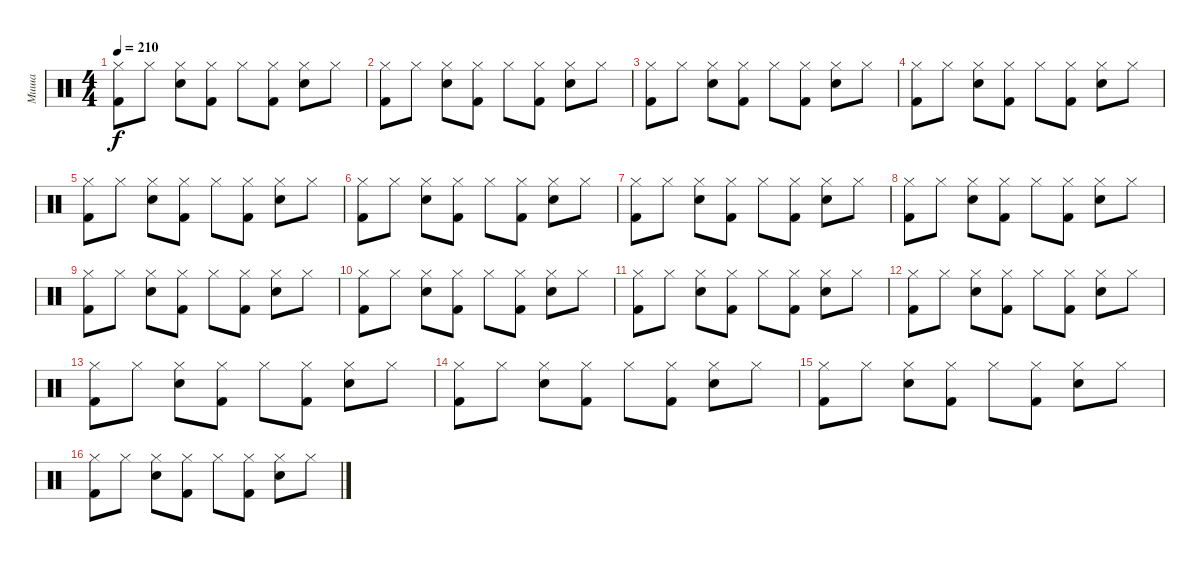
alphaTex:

\track ("Миша" "Миша") {instrument percussion}
\staff {score}
\articulation defaults
\ts (4 4)
\tempo 210
\clef neutral
\ks c
("Hi-Hat (closed)" "Kick (hit) 2").8{dy f} "Hi-Hat (closed)".8 ("Hi-Hat (closed)" "Snare (hit) 2").8 ("Hi-Hat (closed)" "Kick (hit) 2").8 "Hi-Hat (closed)".8 ("Hi-Hat (closed)" "Kick (hit) 2").8 ("Hi-Hat (closed)" "Snare (hit) 2").8 "Hi-Hat (closed)".8 |
("Hi-Hat (closed)" "Kick (hit) 2").8 "Hi-Hat (closed)".8 ("Hi-Hat (closed)" "Snare (hit) 2").8 ("Hi-Hat (closed)" "Kick (hit) 2").8 "Hi-Hat (closed)".8 ("Hi-Hat (closed)" "Kick (hit) 2").8 ("Hi-Hat (closed)" "Snare (hit) 2").8 "Hi-Hat (closed)".8 |
("Hi-Hat (closed)" "Kick (hit) 2").8 "Hi-Hat (closed)".8 ("Hi-Hat (closed)" "Snare (hit) 2").8 ("Hi-Hat (closed)" "Kick (hit) 2").8 "Hi-Hat (closed)".8 ("Hi-Hat (closed)" "Kick (hit) 2").8 ("Hi-Hat (closed)" "Snare (hit) 2").8 "Hi-Hat (closed)".8 |
("Hi-Hat (closed)" "Kick (hit) 2").8 "Hi-Hat (closed)".8 ("Hi-Hat (closed)" "Snare (hit) 2").8 ("Hi-Hat (closed)" "Kick (hit) 2").8 "Hi-Hat (closed)".8 ("Hi-Hat (closed)" "Kick (hit) 2").8 ("Hi-Hat (closed)" "Snare (hit) 2").8 "Hi-Hat (closed)".8 |
("Hi-Hat (closed)" "Kick (hit) 2").8 "Hi-Hat (closed)".8 ("Hi-Hat (closed)" "Snare (hit) 2").8 ("Hi-Hat (closed)" "Kick (hit) 2").8 "Hi-Hat (closed)".8 ("Hi-Hat (closed)" "Kick (hit) 2").8 ("Hi-Hat (closed)" "Snare (hit) 2").8 "Hi-Hat (closed)".8 |
("Hi-Hat (closed)" "Kick (hit) 2").8 "Hi-Hat (closed)".8 ("Hi-Hat (closed)" "Snare (hit) 2").8 ("Hi-Hat (closed)" "Kick (hit) 2").8 "Hi-Hat (closed)".8 ("Hi-Hat (closed)" "Kick (hit) 2").8 ("Hi-Hat (closed)" "Snare (hit) 2").8 "Hi-Hat (closed)".8 |
("Hi-Hat (closed)" "Kick (hit) 2").8 "Hi-Hat (closed)".8 ("Hi-Hat (closed)" "Snare (hit) 2").8 ("Hi-Hat (closed)" "Kick (hit) 2").8 "Hi-Hat (closed)".8 ("Hi-Hat (closed)" "Kick (hit) 2").8 ("Hi-Hat (closed)" "Snare (hit) 2").8 "Hi-Hat (closed)".8 |
("Hi-Hat (closed)" "Kick (hit) 2").8 "Hi-Hat (closed)".8 ("Hi-Hat (closed)" "Snare (hit) 2").8 ("Hi-Hat (closed)" "Kick (hit) 2").8 "Hi-Hat (closed)".8 ("Hi-Hat (closed)" "Kick (hit) 2").8 ("Hi-Hat (closed)" "Snare (hit) 2").8 "Hi-Hat (closed)".8 |
("Hi-Hat (closed)" "Kick (hit) 2").8 "Hi-Hat (closed)".8 ("Hi-Hat (closed)" "Snare (hit) 2").8 ("Hi-Hat (closed)" "Kick (hit) 2").8 "Hi-Hat (closed)".8 ("Hi-Hat (closed)" "Kick (hit) 2").8 ("Hi-Hat (closed)" "Snare (hit) 2").8 "Hi-Hat (closed)".8 |
("Hi-Hat (closed)" "Kick (hit) 2").8 "Hi-Hat (closed)".8 ("Hi-Hat (closed)" "Snare (hit) 2").8 ("Hi-Hat (closed)" "Kick (hit) 2").8 "Hi-Hat (closed)".8 ("Hi-Hat (closed)" "Kick (hit) 2").8 ("Hi-Hat (closed)" "Snare (hit) 2").8 "Hi-Hat (closed)".8 |
("Hi-Hat (closed)" "Kick (hit) 2").8 "Hi-Hat (closed)".8 ("Hi-Hat (closed)" "Snare (hit) 2").8 ("Hi-Hat (closed)" "Kick (hit) 2").8 "Hi-Hat (closed)".8 ("Hi-Hat (closed)" "Kick (hit) 2").8 ("Hi-Hat (closed)" "Snare (hit) 2").8 "Hi-Hat (closed)".8 |
("Hi-Hat (closed)" "Kick (hit) 2").8 "Hi-Hat (closed)".8 ("Hi-Hat (closed)" "Snare (hit) 2").8 ("Hi-Hat (closed)" "Kick (hit) 2").8 "Hi-Hat (closed)".8 ("Hi-Hat (closed)" "Kick (hit) 2").8 ("Hi-Hat (closed)" "Snare (hit) 2").8 "Hi-Hat (closed)".8 |
("Hi-Hat (closed)" "Kick (hit) 2").8 "Hi-Hat (closed)".8 ("Hi-Hat (closed)" "Snare (hit) 2").8 ("Hi-Hat (closed)" "Kick (hit) 2").8 "Hi-Hat (closed)".8 ("Hi-Hat (closed)" "Kick (hit) 2").8 ("Hi-Hat (closed)" "Snare (hit) 2").8 "Hi-Hat (closed)".8 |
("Hi-Hat (closed)" "Kick (hit) 2").8 "Hi-Hat (closed)".8 ("Hi-Hat (closed)" "Snare (hit) 2").8 ("Hi-Hat (closed)" "Kick (hit) 2").8 "Hi-Hat (closed)".8 ("Hi-Hat (closed)" "Kick (hit) 2").8 ("Hi-Hat (closed)" "Snare (hit) 2").8 "Hi-Hat (closed)".8 |
("Hi-Hat (closed)" "Kick (hit) 2").8 "Hi-Hat (closed)".8 ("Hi-Hat (closed)" "Snare (hit) 2").8 ("Hi-Hat (closed)" "Kick (hit) 2").8 "Hi-Hat (closed)".8 ("Hi-Hat (closed)" "Kick (hit) 2").8 ("Hi-Hat (closed)" "Snare (hit) 2").8 "Hi-Hat (closed)".8 |
("Hi-Hat (closed)" "Kick (hit) 2").8 "Hi-Hat (closed)".8 ("Hi-Hat (closed)" "Snare (hit) 2").8 ("Hi-Hat (closed)" "Kick (hit) 2").8 "Hi-Hat (closed)".8 ("Hi-Hat (closed)" "Kick (hit) 2").8 ("Hi-Hat (closed)" "Snare (hit) 2").8 "Hi-Hat (closed)".8
